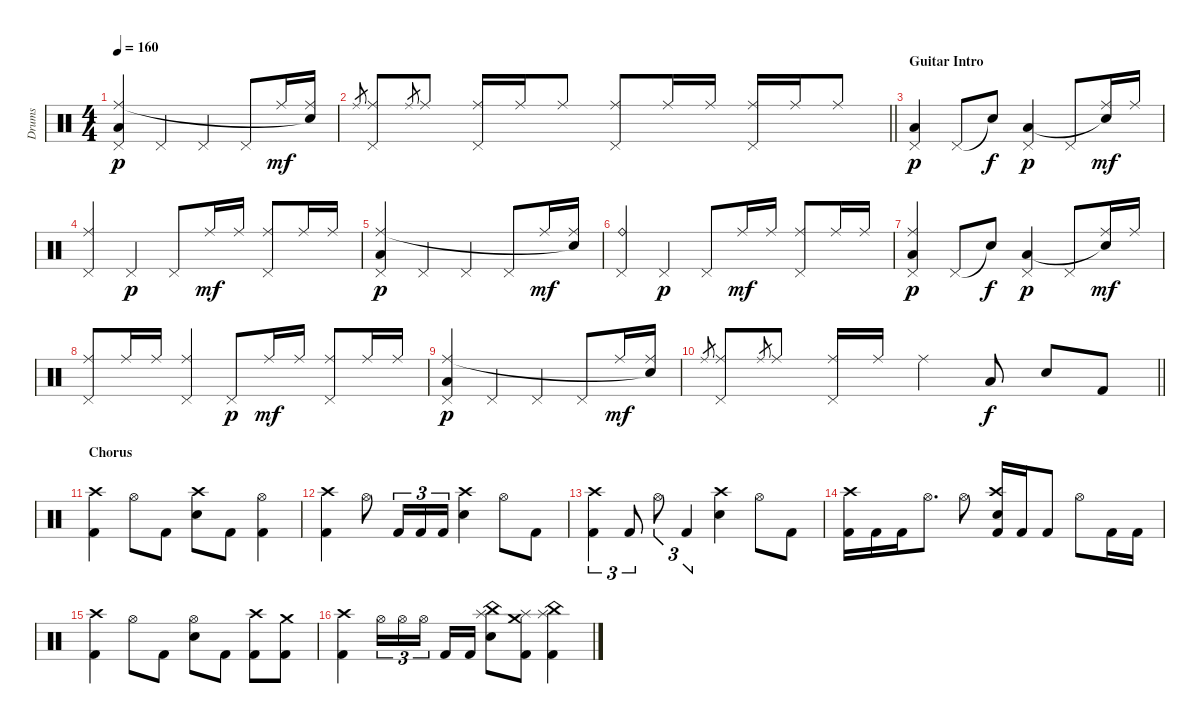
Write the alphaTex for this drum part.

\track ("Drums" "Drums") {instrument percussion}
\staff {score}
\articulation defaults
\ts (4 4)
\tempo 160
\clef neutral
\ks c
("Pedal Hi-Hat (hit)" "Ride (middle)" "Low Floor Tom (hit)").4{dy p} "Pedal Hi-Hat (hit)".4 "Pedal Hi-Hat (hit)".4 "Pedal Hi-Hat (hit)".8 "Ride (middle)".16{dy mf} ("Ride (middle)" "Snare (hit)"{t}).16 |
\barLineRight lightlight "Ride (middle)".8{gr}
("Pedal Hi-Hat (hit)" "Ride (middle)").8 "Ride (middle)".8{gr} "Ride (middle)".8 ("Pedal Hi-Hat (hit)" "Ride (middle)").16 "Ride (middle)".16 "Ride (middle)".8 ("Pedal Hi-Hat (hit)" "Ride (middle)").8 "Ride (middle)".16 "Ride (middle)".16 ("Pedal Hi-Hat (hit)" "Ride (middle)").16 "Ride (middle)".16 "Ride (middle)".8 |
\section ("" "Guitar Intro")
("Pedal Hi-Hat (hit)" "Low Floor Tom (hit)").4{dy p} "Pedal Hi-Hat (hit)".8 "Snare (hit)"{t}.8{dy f} ("Pedal Hi-Hat (hit)" "Low Floor Tom (hit)").4{dy p} "Pedal Hi-Hat (hit)".8 ("Ride (middle)" "Snare (hit)"{t}).16{dy mf} "Ride (middle)".16 |
("Pedal Hi-Hat (hit)" "Ride (middle)").4 "Pedal Hi-Hat (hit)".4{dy p} "Pedal Hi-Hat (hit)".8 "Ride (middle)".16{dy mf} "Ride (middle)".16 ("Pedal Hi-Hat (hit)" "Ride (middle)").8 "Ride (middle)".16 "Ride (middle)".16 |
("Pedal Hi-Hat (hit)" "Ride (middle)" "Low Floor Tom (hit)").4{dy p} "Pedal Hi-Hat (hit)".4 "Pedal Hi-Hat (hit)".4 "Pedal Hi-Hat (hit)".8 "Ride (middle)".16{dy mf} ("Ride (middle)" "Snare (hit)"{t}).16 |
("Pedal Hi-Hat (hit)" "Ride (bell)").4 "Pedal Hi-Hat (hit)".4{dy p} "Pedal Hi-Hat (hit)".8 "Ride (middle)".16{dy mf} "Ride (middle)".16 ("Pedal Hi-Hat (hit)" "Ride (middle)").8 "Ride (middle)".16 "Ride (middle)".16 |
("Pedal Hi-Hat (hit)" "Ride (middle)" "Low Floor Tom (hit)").4{dy p} "Pedal Hi-Hat (hit)".8 "Snare (hit)"{t}.8{dy f} ("Pedal Hi-Hat (hit)" "Low Floor Tom (hit)").4{dy p} "Pedal Hi-Hat (hit)".8 ("Ride (middle)" "Snare (hit)"{t}).16{dy mf} "Ride (middle)".16 |
("Pedal Hi-Hat (hit)" "Ride (middle)").8 "Ride (middle)".16 "Ride (middle)".16 ("Pedal Hi-Hat (hit)" "Ride (middle)").4 "Pedal Hi-Hat (hit)".8{dy p} "Ride (middle)".16{dy mf} "Ride (middle)".16 ("Pedal Hi-Hat (hit)" "Ride (middle)").8 "Ride (middle)".16 "Ride (middle)".16 |
("Pedal Hi-Hat (hit)" "Ride (middle)" "Low Floor Tom (hit)").4{dy p} "Pedal Hi-Hat (hit)".4 "Pedal Hi-Hat (hit)".4 "Pedal Hi-Hat (hit)".8 "Ride (middle)".16{dy mf} ("Ride (middle)" "Snare (hit)"{t}).16 |
\barLineRight lightlight "Ride (middle)".8{gr}
("Pedal Hi-Hat (hit)" "Ride (middle)").8 "Ride (middle)".8{gr} "Ride (middle)".8 ("Pedal Hi-Hat (hit)" "Ride (middle)").16 "Ride (middle)".16 "Ride (middle)".4 "Low Tom (hit)".8{dy f} "Snare (hit) 2".8 "Kick (hit) 2".8 |
\section ("" "Chorus")
("Crash high (hit)" "Kick (hit) 2").4 "Hi-Hat (open)".8 "Kick (hit) 2".8 ("Crash high (hit)" "Electric Snare (hit)").8 "Kick (hit) 2".8 ("Hi-Hat (open)" "Kick (hit) 2").4 |
("Crash high (hit)" "Kick (hit) 2").4 "Hi-Hat (open)".8 "Kick (hit) 2".16{tu (3 2)} "Kick (hit) 2".16{tu (3 2)} "Kick (hit) 2".16{tu (3 2)} ("Crash high (hit)" "Electric Snare (hit)").4 "Hi-Hat (open)".8 "Kick (hit) 2".8 |
("Crash high (hit)" "Kick (hit) 2").4{tu (3 2)} "Kick (hit) 2".8{tu (3 2)} "Hi-Hat (open)".8{tu (3 2)} "Kick (hit) 2".4{tu (3 2)} ("Crash high (hit)" "Electric Snare (hit)").4 "Hi-Hat (open)".8 "Kick (hit) 2".8 |
("Crash high (hit)" "Kick (hit) 2").16 "Kick (hit) 2".16 "Kick (hit) 2".16 "Hi-Hat (open)".8{d} "Hi-Hat (open)".8 ("Crash high (hit)" "Electric Snare (hit)" "Kick (hit) 2").16 "Kick (hit) 2".16 "Kick (hit) 2".8 "Hi-Hat (open)".8 "Kick (hit) 2".16 "Kick (hit) 2".16 |
("Crash high (hit)" "Kick (hit) 2").4 "Hi-Hat (open)".8 "Kick (hit) 2".8 ("Hi-Hat (open)" "Electric Snare (hit)").8 "Kick (hit) 2".8 ("Crash high (hit)" "Kick (hit) 2").8 ("Crash medium (hit)" "Kick (hit) 2").8 |
("Crash high (hit)" "Kick (hit) 2").4 "Hi-Hat (open)".16{tu (3 2)} "Hi-Hat (open)".16{tu (3 2)} "Hi-Hat (open)".16{tu (3 2)} "Kick (hit) 2".16 "Kick (hit) 2".16 ("China (hit)" "Splash (hit)" "Electric Snare (hit)").8 ("Crash medium (hit)" "Splash (hit)" "Kick (hit) 2").8 ("China (hit)" "Splash (hit)" "Kick (hit) 2").4
